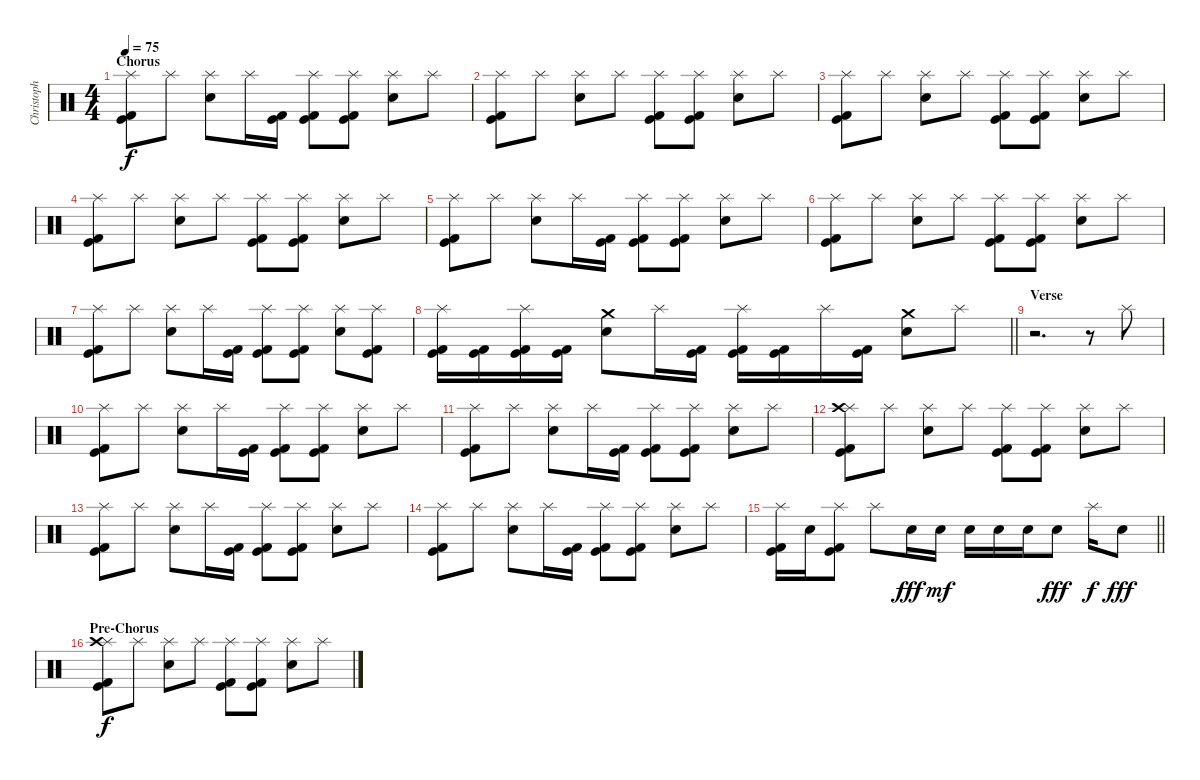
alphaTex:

\track ("Christoph" "Christoph") {instrument percussion}
\staff {score}
\articulation defaults
\ts (4 4)
\section ("" "Chorus")
\tempo 75
\clef neutral
\ks c
("Splash (hit)" "Kick (hit)" "Kick (hit) 2").8{dy f} "Splash (hit)".8 ("Splash (hit)" "Snare (hit) 2").8 "Splash (hit)".16 ("Kick (hit)" "Kick (hit) 2").16 ("Kick (hit) 2" "Kick (hit)" "Splash (hit)").8 ("Kick (hit) 2" "Kick (hit)" "Splash (hit)").8 ("Snare (hit) 2" "Splash (hit)").8 "Splash (hit)".8 |
("Splash (hit)" "Kick (hit)" "Kick (hit) 2").8 "Splash (hit)".8 ("Splash (hit)" "Snare (hit) 2").8 "Splash (hit)".8 ("Splash (hit)" "Kick (hit)" "Kick (hit) 2").8 ("Splash (hit)" "Kick (hit)" "Kick (hit) 2").8 ("Splash (hit)" "Snare (hit) 2").8 "Splash (hit)".8 |
("Splash (hit)" "Kick (hit)" "Kick (hit) 2").8 "Splash (hit)".8 ("Splash (hit)" "Snare (hit) 2").8 "Splash (hit)".8 ("Splash (hit)" "Kick (hit)" "Kick (hit) 2").8 ("Splash (hit)" "Kick (hit)" "Kick (hit) 2").8 ("Splash (hit)" "Snare (hit) 2").8 "Splash (hit)".8 |
("Splash (hit)" "Kick (hit)" "Kick (hit) 2").8 "Splash (hit)".8 ("Splash (hit)" "Snare (hit) 2").8 "Splash (hit)".8 ("Splash (hit)" "Kick (hit)" "Kick (hit) 2").8 ("Splash (hit)" "Kick (hit)" "Kick (hit) 2").8 ("Splash (hit)" "Snare (hit) 2").8 "Splash (hit)".8 |
("Splash (hit)" "Kick (hit)" "Kick (hit) 2").8 "Splash (hit)".8 ("Splash (hit)" "Snare (hit) 2").8 "Splash (hit)".16 ("Kick (hit)" "Kick (hit) 2").16 ("Kick (hit) 2" "Kick (hit)" "Splash (hit)").8 ("Kick (hit) 2" "Kick (hit)" "Splash (hit)").8 ("Snare (hit) 2" "Splash (hit)").8 "Splash (hit)".8 |
("Splash (hit)" "Kick (hit)" "Kick (hit) 2").8 "Splash (hit)".8 ("Splash (hit)" "Snare (hit) 2").8 "Splash (hit)".8 ("Splash (hit)" "Kick (hit)" "Kick (hit) 2").8 ("Splash (hit)" "Kick (hit)" "Kick (hit) 2").8 ("Splash (hit)" "Snare (hit) 2").8 "Splash (hit)".8 |
("Splash (hit)" "Kick (hit)" "Kick (hit) 2").8 "Splash (hit)".8 ("Splash (hit)" "Snare (hit) 2").8 "Splash (hit)".16 ("Kick (hit)" "Kick (hit) 2").16 ("Kick (hit) 2" "Kick (hit)" "Splash (hit)").8 ("Kick (hit) 2" "Kick (hit)" "Splash (hit)").8 ("Snare (hit) 2" "Splash (hit)").8 ("Splash (hit)" "Kick (hit)" "Kick (hit) 2").8 |
\barLineRight lightlight
("Splash (hit)" "Kick (hit)" "Kick (hit) 2").16 ("Kick (hit) 2" "Kick (hit)").16 ("Kick (hit) 2" "Kick (hit)" "Splash (hit)").16 ("Kick (hit)" "Kick (hit) 2").16 ("Snare (hit) 2" "Crash medium (hit)").8 "Splash (hit)".16 ("Kick (hit)" "Kick (hit) 2").16 ("Kick (hit) 2" "Kick (hit)" "Splash (hit)").16 ("Kick (hit) 2" "Kick (hit)").16 "Splash (hit)".16 ("Kick (hit)" "Kick (hit) 2").16 ("Snare (hit) 2" "Crash medium (hit)").8 "Splash (hit)".8 |
\section ("" "Verse")
r.2{d} r.8 "Splash (hit)".8 |
("Splash (hit)" "Kick (hit)" "Kick (hit) 2").8 "Splash (hit)".8 ("Splash (hit)" "Snare (hit) 2").8 "Splash (hit)".16 ("Kick (hit)" "Kick (hit) 2").16 ("Kick (hit) 2" "Kick (hit)" "Splash (hit)").8 ("Kick (hit) 2" "Kick (hit)" "Splash (hit)").8 ("Snare (hit) 2" "Splash (hit)").8 "Splash (hit)".8 |
("Splash (hit)" "Kick (hit)" "Kick (hit) 2").8 "Splash (hit)".8 ("Splash (hit)" "Snare (hit) 2").8 "Splash (hit)".16 ("Kick (hit)" "Kick (hit) 2").16 ("Kick (hit) 2" "Kick (hit)" "Splash (hit)").8 ("Kick (hit) 2" "Kick (hit)" "Splash (hit)").8 ("Snare (hit) 2" "Splash (hit)").8 "Splash (hit)".8 |
("Splash (hit)" "Kick (hit)" "Kick (hit) 2" "Crash high (hit)").8 "Splash (hit)".8 ("Splash (hit)" "Snare (hit) 2").8 "Splash (hit)".8 ("Splash (hit)" "Kick (hit)" "Kick (hit) 2").8 ("Splash (hit)" "Kick (hit)" "Kick (hit) 2").8 ("Splash (hit)" "Snare (hit) 2").8 "Splash (hit)".8 |
("Splash (hit)" "Kick (hit)" "Kick (hit) 2").8 "Splash (hit)".8 ("Splash (hit)" "Snare (hit) 2").8 "Splash (hit)".16 ("Kick (hit)" "Kick (hit) 2").16 ("Kick (hit) 2" "Kick (hit)" "Splash (hit)").8 ("Kick (hit) 2" "Kick (hit)" "Splash (hit)").8 ("Snare (hit) 2" "Splash (hit)").8 "Splash (hit)".8 |
("Splash (hit)" "Kick (hit)" "Kick (hit) 2").8 "Splash (hit)".8 ("Splash (hit)" "Snare (hit) 2").8 "Splash (hit)".16 ("Kick (hit)" "Kick (hit) 2").16 ("Kick (hit) 2" "Kick (hit)" "Splash (hit)").8 ("Kick (hit) 2" "Kick (hit)" "Splash (hit)").8 ("Snare (hit) 2" "Splash (hit)").8 "Splash (hit)".8 |
\barLineRight lightlight
("Kick (hit)" "Kick (hit) 2" "Splash (hit)").16 "Snare (hit) 2".16 ("Kick (hit) 2" "Kick (hit)" "Splash (hit)").8 "Splash (hit)".8 "Snare (hit) 2".16{dy fff} "Snare (hit) 2".16{dy mf} "Snare (hit) 2".16 "Snare (hit) 2".16 "Snare (hit) 2".16 "Snare (hit) 2".8{dy fff} "Splash (hit)".16{dy f} "Snare (hit) 2".8{dy fff} |
\section ("" "Pre-Chorus")
("Splash (hit)" "Kick (hit)" "Kick (hit) 2" "Crash high (hit)").8{dy f} "Splash (hit)".8 ("Splash (hit)" "Snare (hit) 2").8 "Splash (hit)".8 ("Splash (hit)" "Kick (hit)" "Kick (hit) 2").8 ("Splash (hit)" "Kick (hit)" "Kick (hit) 2").8 ("Splash (hit)" "Snare (hit) 2").8 "Splash (hit)".8
